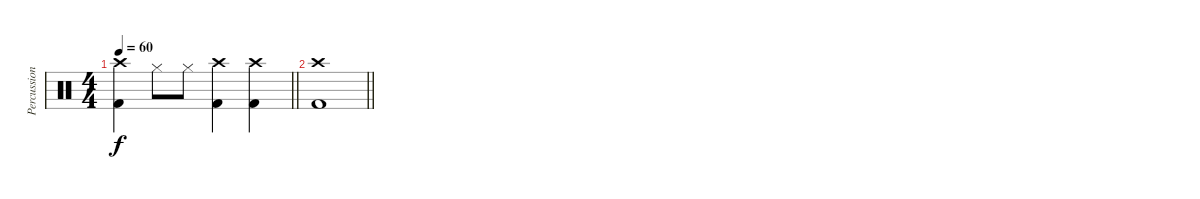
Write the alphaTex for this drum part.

\track ("Percussion" "Percussion") {instrument percussion}
\staff {score}
\articulation defaults
\ts (4 4)
\tempo 60
\clef neutral
\barLineRight lightlight
\ks c
("Crash high (hit)" "Kick (hit) 2").4{dy f} "Hi-Hat (closed)".8 "Hi-Hat (closed)".8 ("Crash high (hit)" "Kick (hit) 2").4 ("Crash high (hit)" "Kick (hit) 2").4 |
\barLineRight lightlight
("Crash high (hit)" "Kick (hit) 2").1
